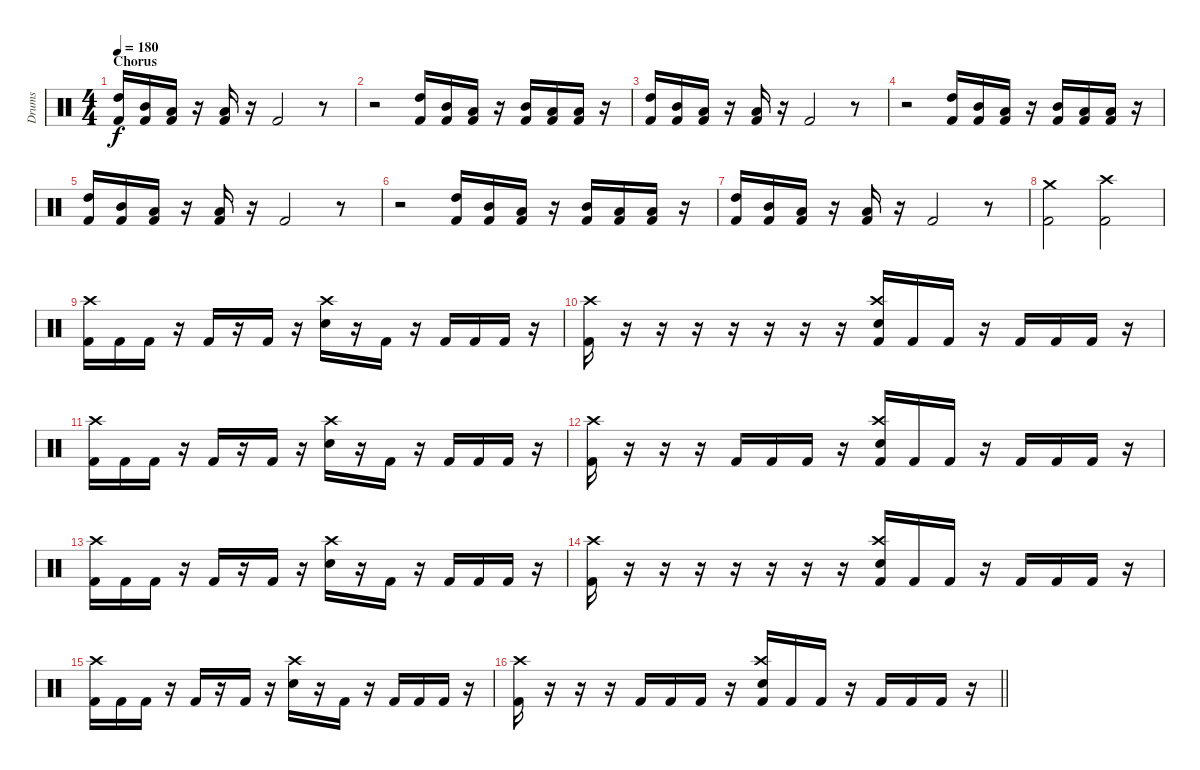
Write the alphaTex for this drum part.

\track ("Drums" "Drums") {instrument percussion}
\staff {score}
\articulation defaults
\ts (4 4)
\section ("" "Chorus")
\tempo 180
\clef neutral
\ks c
("High Tom (hit)" "Kick (hit) 2").16{dy f} ("Mid Tom (hit)" "Kick (hit) 2").16 ("Low Tom (hit)" "Kick (hit) 2").16 r.16 ("Low Floor Tom (hit)" "Kick (hit) 2").16 r.16 "Kick (hit) 2".2 r.8 |
r.2 ("High Tom (hit)" "Kick (hit) 2").16 ("Mid Tom (hit)" "Kick (hit) 2").16 ("Low Tom (hit)" "Kick (hit) 2").16 r.16 ("Mid Tom (hit)" "Kick (hit) 2").16 ("Low Tom (hit)" "Kick (hit) 2").16 ("Low Floor Tom (hit)" "Kick (hit) 2").16 r.16 |
("High Tom (hit)" "Kick (hit) 2").16 ("Mid Tom (hit)" "Kick (hit) 2").16 ("Low Tom (hit)" "Kick (hit) 2").16 r.16 ("Low Floor Tom (hit)" "Kick (hit) 2").16 r.16 "Kick (hit) 2".2 r.8 |
r.2 ("High Tom (hit)" "Kick (hit) 2").16 ("Mid Tom (hit)" "Kick (hit) 2").16 ("Low Tom (hit)" "Kick (hit) 2").16 r.16 ("Mid Tom (hit)" "Kick (hit) 2").16 ("Low Tom (hit)" "Kick (hit) 2").16 ("Low Floor Tom (hit)" "Kick (hit) 2").16 r.16 |
("High Tom (hit)" "Kick (hit) 2").16 ("Mid Tom (hit)" "Kick (hit) 2").16 ("Low Tom (hit)" "Kick (hit) 2").16 r.16 ("Low Floor Tom (hit)" "Kick (hit) 2").16 r.16 "Kick (hit) 2".2 r.8 |
r.2 ("High Tom (hit)" "Kick (hit) 2").16 ("Mid Tom (hit)" "Kick (hit) 2").16 ("Low Tom (hit)" "Kick (hit) 2").16 r.16 ("Mid Tom (hit)" "Kick (hit) 2").16 ("Low Tom (hit)" "Kick (hit) 2").16 ("Low Floor Tom (hit)" "Kick (hit) 2").16 r.16 |
("High Tom (hit)" "Kick (hit) 2").16 ("Mid Tom (hit)" "Kick (hit) 2").16 ("Low Tom (hit)" "Kick (hit) 2").16 r.16 ("Low Floor Tom (hit)" "Kick (hit) 2").16 r.16 "Kick (hit) 2".2 r.8 |
("Crash medium (hit)" "Kick (hit) 2").2 ("Crash high (hit)" "Kick (hit) 2").2 |
("Crash high (hit)" "Kick (hit) 2").16 "Kick (hit) 2".16 "Kick (hit) 2".16 r.16 "Kick (hit) 2".16 r.16 "Kick (hit) 2".16 r.16 ("Crash high (hit)" "Electric Snare (hit)").16 r.16 "Kick (hit) 2".16 r.16 "Kick (hit) 2".16 "Kick (hit) 2".16 "Kick (hit) 2".16 r.16 |
("Crash high (hit)" "Kick (hit) 2").16 r.16 r.16 r.16 r.16 r.16 r.16 r.16 ("Crash high (hit)" "Electric Snare (hit)" "Kick (hit) 2").16 "Kick (hit) 2".16 "Kick (hit) 2".16 r.16 "Kick (hit) 2".16 "Kick (hit) 2".16 "Kick (hit) 2".16 r.16 |
("Crash high (hit)" "Kick (hit) 2").16 "Kick (hit) 2".16 "Kick (hit) 2".16 r.16 "Kick (hit) 2".16 r.16 "Kick (hit) 2".16 r.16 ("Crash high (hit)" "Electric Snare (hit)").16 r.16 "Kick (hit) 2".16 r.16 "Kick (hit) 2".16 "Kick (hit) 2".16 "Kick (hit) 2".16 r.16 |
("Crash high (hit)" "Kick (hit) 2").16 r.16 r.16 r.16 "Kick (hit) 2".16 "Kick (hit) 2".16 "Kick (hit) 2".16 r.16 ("Crash high (hit)" "Electric Snare (hit)" "Kick (hit) 2").16 "Kick (hit) 2".16 "Kick (hit) 2".16 r.16 "Kick (hit) 2".16 "Kick (hit) 2".16 "Kick (hit) 2".16 r.16 |
("Crash high (hit)" "Kick (hit) 2").16 "Kick (hit) 2".16 "Kick (hit) 2".16 r.16 "Kick (hit) 2".16 r.16 "Kick (hit) 2".16 r.16 ("Crash high (hit)" "Electric Snare (hit)").16 r.16 "Kick (hit) 2".16 r.16 "Kick (hit) 2".16 "Kick (hit) 2".16 "Kick (hit) 2".16 r.16 |
("Crash high (hit)" "Kick (hit) 2").16 r.16 r.16 r.16 r.16 r.16 r.16 r.16 ("Crash high (hit)" "Electric Snare (hit)" "Kick (hit) 2").16 "Kick (hit) 2".16 "Kick (hit) 2".16 r.16 "Kick (hit) 2".16 "Kick (hit) 2".16 "Kick (hit) 2".16 r.16 |
("Crash high (hit)" "Kick (hit) 2").16 "Kick (hit) 2".16 "Kick (hit) 2".16 r.16 "Kick (hit) 2".16 r.16 "Kick (hit) 2".16 r.16 ("Crash high (hit)" "Electric Snare (hit)").16 r.16 "Kick (hit) 2".16 r.16 "Kick (hit) 2".16 "Kick (hit) 2".16 "Kick (hit) 2".16 r.16 |
\barLineRight lightlight
("Crash high (hit)" "Kick (hit) 2").16 r.16 r.16 r.16 "Kick (hit) 2".16 "Kick (hit) 2".16 "Kick (hit) 2".16 r.16 ("Crash high (hit)" "Electric Snare (hit)" "Kick (hit) 2").16 "Kick (hit) 2".16 "Kick (hit) 2".16 r.16 "Kick (hit) 2".16 "Kick (hit) 2".16 "Kick (hit) 2".16 r.16
